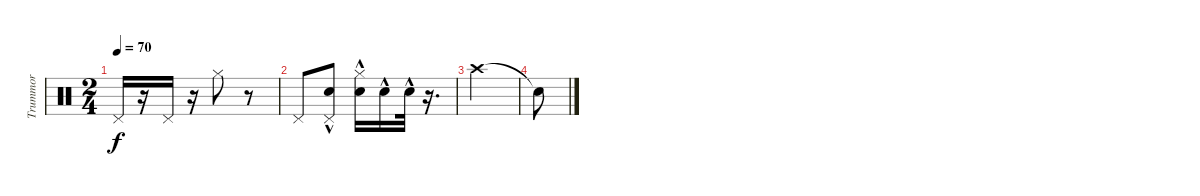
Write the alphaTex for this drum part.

\track ("Trummor" "Trummor") {instrument percussion}
\staff {score}
\articulation defaults
\ts (2 4)
\tempo 70
\clef neutral
\ks c "Pedal Hi-Hat (hit)".16{dy f}
r.16 "Pedal Hi-Hat (hit)".16 r.16 "Hi-Hat (closed)".8 r.8 |
"Pedal Hi-Hat (hit)".8 ("Pedal Hi-Hat (hit)" "Snare (hit) 2"{hac}).8 ("Hi-Hat (closed)" "Snare (hit) 2"{hac}).16 "Snare (hit) 2"{hac}.16 "Snare (hit) 2"{hac}.32 r.16{d} |
"Crash high (hit)".2 |
"Snare (hit)"{t}.8
